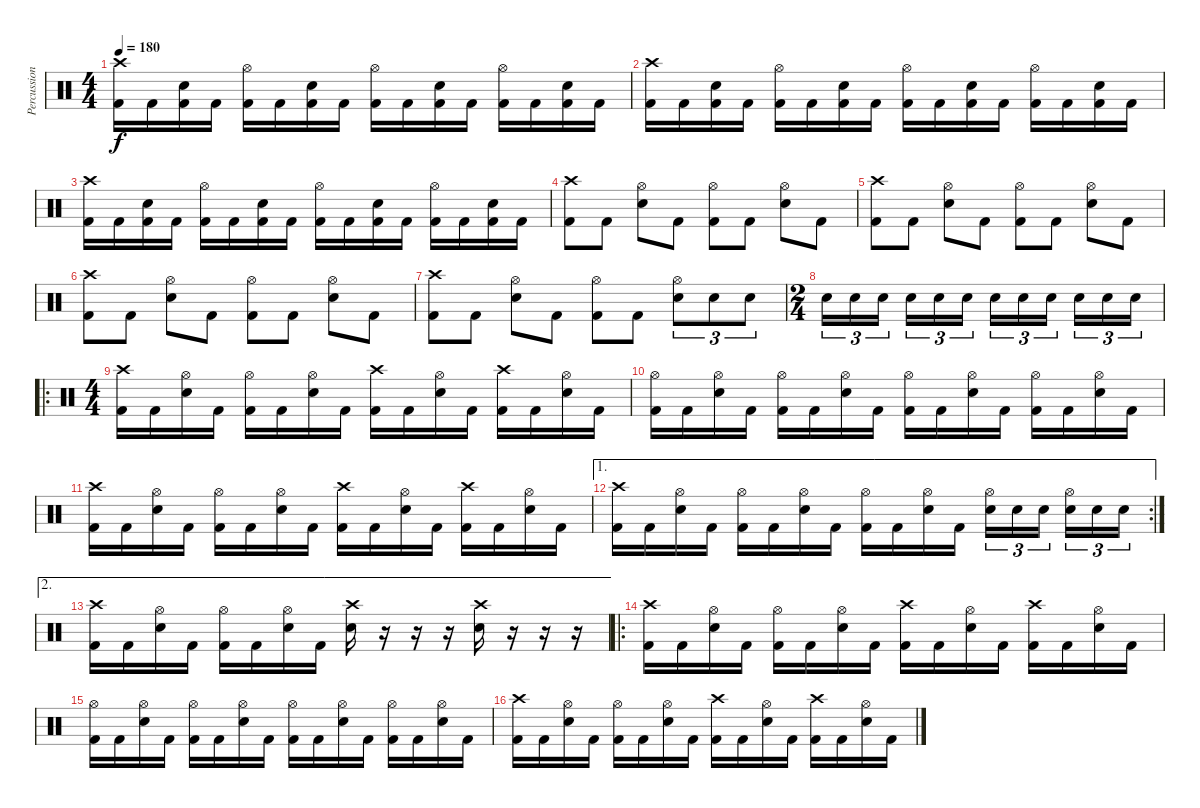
\track ("Percussion" "Percussion") {instrument percussion}
\staff {score}
\articulation defaults
\ts (4 4)
\tempo 180
\clef neutral
\ks c
("Crash high (hit)" "Kick (hit) 2").16{dy f} "Kick (hit) 2".16 ("Electric Snare (hit)" "Kick (hit) 2").16 "Kick (hit) 2".16 ("Hi-Hat (open)" "Kick (hit) 2").16 "Kick (hit) 2".16 ("Electric Snare (hit)" "Kick (hit) 2").16 "Kick (hit) 2".16 ("Hi-Hat (open)" "Kick (hit) 2").16 "Kick (hit) 2".16 ("Electric Snare (hit)" "Kick (hit) 2").16 "Kick (hit) 2".16 ("Hi-Hat (open)" "Kick (hit) 2").16 "Kick (hit) 2".16 ("Electric Snare (hit)" "Kick (hit) 2").16 "Kick (hit) 2".16 |
("Crash high (hit)" "Kick (hit) 2").16 "Kick (hit) 2".16 ("Electric Snare (hit)" "Kick (hit) 2").16 "Kick (hit) 2".16 ("Hi-Hat (open)" "Kick (hit) 2").16 "Kick (hit) 2".16 ("Electric Snare (hit)" "Kick (hit) 2").16 "Kick (hit) 2".16 ("Hi-Hat (open)" "Kick (hit) 2").16 "Kick (hit) 2".16 ("Electric Snare (hit)" "Kick (hit) 2").16 "Kick (hit) 2".16 ("Hi-Hat (open)" "Kick (hit) 2").16 "Kick (hit) 2".16 ("Electric Snare (hit)" "Kick (hit) 2").16 "Kick (hit) 2".16 |
("Crash high (hit)" "Kick (hit) 2").16 "Kick (hit) 2".16 ("Electric Snare (hit)" "Kick (hit) 2").16 "Kick (hit) 2".16 ("Hi-Hat (open)" "Kick (hit) 2").16 "Kick (hit) 2".16 ("Electric Snare (hit)" "Kick (hit) 2").16 "Kick (hit) 2".16 ("Hi-Hat (open)" "Kick (hit) 2").16 "Kick (hit) 2".16 ("Electric Snare (hit)" "Kick (hit) 2").16 "Kick (hit) 2".16 ("Hi-Hat (open)" "Kick (hit) 2").16 "Kick (hit) 2".16 ("Electric Snare (hit)" "Kick (hit) 2").16 "Kick (hit) 2".16 |
("Crash high (hit)" "Kick (hit) 2").8 "Kick (hit) 2".8 ("Hi-Hat (open)" "Electric Snare (hit)").8 "Kick (hit) 2".8 ("Hi-Hat (open)" "Kick (hit) 2").8 "Kick (hit) 2".8 ("Hi-Hat (open)" "Electric Snare (hit)").8 "Kick (hit) 2".8 |
("Crash high (hit)" "Kick (hit) 2").8 "Kick (hit) 2".8 ("Hi-Hat (open)" "Electric Snare (hit)").8 "Kick (hit) 2".8 ("Hi-Hat (open)" "Kick (hit) 2").8 "Kick (hit) 2".8 ("Hi-Hat (open)" "Electric Snare (hit)").8 "Kick (hit) 2".8 |
("Crash high (hit)" "Kick (hit) 2").8 "Kick (hit) 2".8 ("Hi-Hat (open)" "Electric Snare (hit)").8 "Kick (hit) 2".8 ("Hi-Hat (open)" "Kick (hit) 2").8 "Kick (hit) 2".8 ("Hi-Hat (open)" "Electric Snare (hit)").8 "Kick (hit) 2".8 |
("Crash high (hit)" "Kick (hit) 2").8 "Kick (hit) 2".8 ("Hi-Hat (open)" "Electric Snare (hit)").8 "Kick (hit) 2".8 ("Hi-Hat (open)" "Kick (hit) 2").8 "Kick (hit) 2".8 ("Hi-Hat (open)" "Electric Snare (hit)").8{tu (3 2)} "Electric Snare (hit)".8{tu (3 2)} "Electric Snare (hit)".8{tu (3 2)} |
\ts (2 4)
"Electric Snare (hit)".16{tu (3 2)} "Electric Snare (hit)".16{tu (3 2)} "Electric Snare (hit)".16{tu (3 2)} "Electric Snare (hit)".16{tu (3 2)} "Electric Snare (hit)".16{tu (3 2)} "Electric Snare (hit)".16{tu (3 2)} "Electric Snare (hit)".16{tu (3 2)} "Electric Snare (hit)".16{tu (3 2)} "Electric Snare (hit)".16{tu (3 2)} "Electric Snare (hit)".16{tu (3 2)} "Electric Snare (hit)".16{tu (3 2)} "Electric Snare (hit)".16{tu (3 2)} |
\ro
\ts (4 4)
("Crash high (hit)" "Kick (hit) 2").16 "Kick (hit) 2".16 ("Hi-Hat (open)" "Electric Snare (hit)").16 "Kick (hit) 2".16 ("Hi-Hat (open)" "Kick (hit) 2").16 "Kick (hit) 2".16 ("Hi-Hat (open)" "Electric Snare (hit)").16 "Kick (hit) 2".16 ("Crash high (hit)" "Kick (hit) 2").16 "Kick (hit) 2".16 ("Hi-Hat (open)" "Electric Snare (hit)").16 "Kick (hit) 2".16 ("Crash high (hit)" "Kick (hit) 2").16 "Kick (hit) 2".16 ("Hi-Hat (open)" "Electric Snare (hit)").16 "Kick (hit) 2".16 |
("Hi-Hat (open)" "Kick (hit) 2").16 "Kick (hit) 2".16 ("Hi-Hat (open)" "Electric Snare (hit)").16 "Kick (hit) 2".16 ("Hi-Hat (open)" "Kick (hit) 2").16 "Kick (hit) 2".16 ("Hi-Hat (open)" "Electric Snare (hit)").16 "Kick (hit) 2".16 ("Hi-Hat (open)" "Kick (hit) 2").16 "Kick (hit) 2".16 ("Hi-Hat (open)" "Electric Snare (hit)").16 "Kick (hit) 2".16 ("Hi-Hat (open)" "Kick (hit) 2").16 "Kick (hit) 2".16 ("Hi-Hat (open)" "Electric Snare (hit)").16 "Kick (hit) 2".16 |
("Crash high (hit)" "Kick (hit) 2").16 "Kick (hit) 2".16 ("Hi-Hat (open)" "Electric Snare (hit)").16 "Kick (hit) 2".16 ("Hi-Hat (open)" "Kick (hit) 2").16 "Kick (hit) 2".16 ("Hi-Hat (open)" "Electric Snare (hit)").16 "Kick (hit) 2".16 ("Crash high (hit)" "Kick (hit) 2").16 "Kick (hit) 2".16 ("Hi-Hat (open)" "Electric Snare (hit)").16 "Kick (hit) 2".16 ("Crash high (hit)" "Kick (hit) 2").16 "Kick (hit) 2".16 ("Hi-Hat (open)" "Electric Snare (hit)").16 "Kick (hit) 2".16 |
\ae 1
\rc 2
("Crash high (hit)" "Kick (hit) 2").16 "Kick (hit) 2".16 ("Hi-Hat (open)" "Electric Snare (hit)").16 "Kick (hit) 2".16 ("Hi-Hat (open)" "Kick (hit) 2").16 "Kick (hit) 2".16 ("Hi-Hat (open)" "Electric Snare (hit)").16 "Kick (hit) 2".16 ("Hi-Hat (open)" "Kick (hit) 2").16 "Kick (hit) 2".16 ("Hi-Hat (open)" "Electric Snare (hit)").16 "Kick (hit) 2".16 ("Hi-Hat (open)" "Electric Snare (hit)").16{tu (3 2)} "Electric Snare (hit)".16{tu (3 2)} "Electric Snare (hit)".16{tu (3 2)} ("Hi-Hat (open)" "Electric Snare (hit)").16{tu (3 2)} "Electric Snare (hit)".16{tu (3 2)} "Electric Snare (hit)".16{tu (3 2)} |
\ae 2
("Crash high (hit)" "Kick (hit) 2").16 "Kick (hit) 2".16 ("Hi-Hat (open)" "Electric Snare (hit)").16 "Kick (hit) 2".16 ("Hi-Hat (open)" "Kick (hit) 2").16 "Kick (hit) 2".16 ("Hi-Hat (open)" "Electric Snare (hit)").16 "Kick (hit) 2".16 ("Crash high (hit)" "Electric Snare (hit)").16 r.16 r.16 r.16 ("Crash high (hit)" "Electric Snare (hit)").16 r.16 r.16 r.16 |
\ro
("Crash high (hit)" "Kick (hit) 2").16 "Kick (hit) 2".16 ("Hi-Hat (open)" "Electric Snare (hit)").16 "Kick (hit) 2".16 ("Hi-Hat (open)" "Kick (hit) 2").16 "Kick (hit) 2".16 ("Hi-Hat (open)" "Electric Snare (hit)").16 "Kick (hit) 2".16 ("Crash high (hit)" "Kick (hit) 2").16 "Kick (hit) 2".16 ("Hi-Hat (open)" "Electric Snare (hit)").16 "Kick (hit) 2".16 ("Crash high (hit)" "Kick (hit) 2").16 "Kick (hit) 2".16 ("Hi-Hat (open)" "Electric Snare (hit)").16 "Kick (hit) 2".16 |
("Hi-Hat (open)" "Kick (hit) 2").16 "Kick (hit) 2".16 ("Hi-Hat (open)" "Electric Snare (hit)").16 "Kick (hit) 2".16 ("Hi-Hat (open)" "Kick (hit) 2").16 "Kick (hit) 2".16 ("Hi-Hat (open)" "Electric Snare (hit)").16 "Kick (hit) 2".16 ("Hi-Hat (open)" "Kick (hit) 2").16 "Kick (hit) 2".16 ("Hi-Hat (open)" "Electric Snare (hit)").16 "Kick (hit) 2".16 ("Hi-Hat (open)" "Kick (hit) 2").16 "Kick (hit) 2".16 ("Hi-Hat (open)" "Electric Snare (hit)").16 "Kick (hit) 2".16 |
("Crash high (hit)" "Kick (hit) 2").16 "Kick (hit) 2".16 ("Hi-Hat (open)" "Electric Snare (hit)").16 "Kick (hit) 2".16 ("Hi-Hat (open)" "Kick (hit) 2").16 "Kick (hit) 2".16 ("Hi-Hat (open)" "Electric Snare (hit)").16 "Kick (hit) 2".16 ("Crash high (hit)" "Kick (hit) 2").16 "Kick (hit) 2".16 ("Hi-Hat (open)" "Electric Snare (hit)").16 "Kick (hit) 2".16 ("Crash high (hit)" "Kick (hit) 2").16 "Kick (hit) 2".16 ("Hi-Hat (open)" "Electric Snare (hit)").16 "Kick (hit) 2".16
